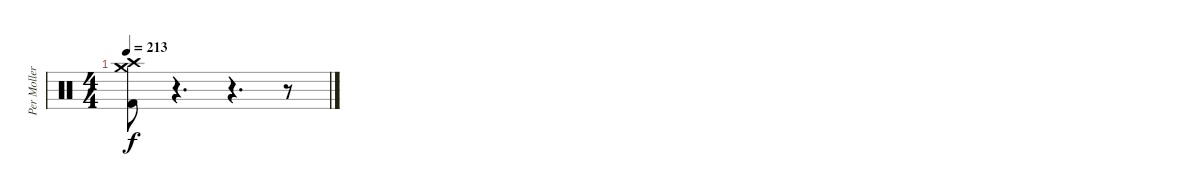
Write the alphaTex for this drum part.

\track ("Per Moller Jensen" "Per Moller") {instrument percussion}
\staff {score}
\articulation defaults
\ts (4 4)
\tempo 213
\clef neutral
\ks c
("Crash medium (hit)" "Crash high (hit)" "Kick (hit) 2").8{dy f} r.4{d} r.4{d} r.8
